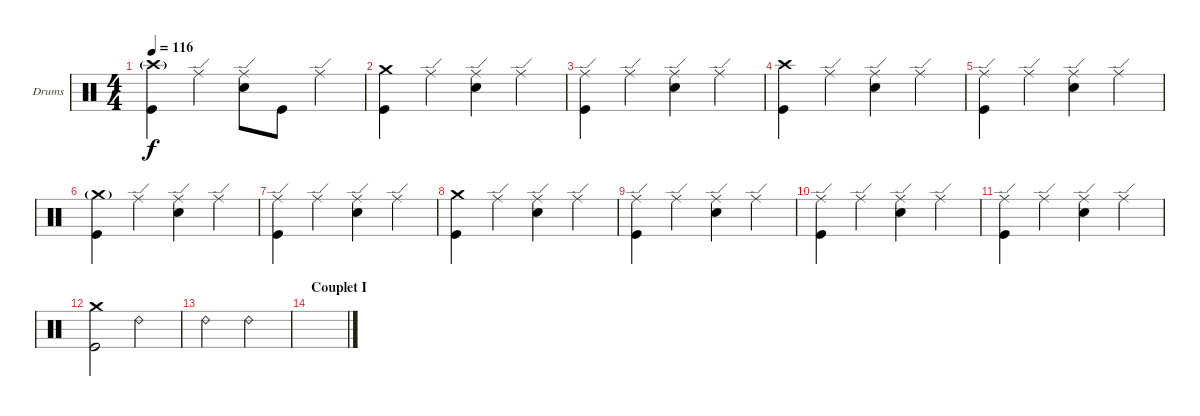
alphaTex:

\bracketExtendMode groupsimilarinstruments
\firstSystemTrackNameOrientation horizontal
\otherSystemsTrackNameOrientation horizontal
\track ("Nick Mason" "Drums") {multiBarRest instrument percussion}
\staff {score}
\articulation defaults
\ts (4 4)
\tempo 116
\clef neutral
\ks c
("Crash high (hit)"{g} "Kick (hit)").4{dy f} "Ride (edge)".4 ("Ride (edge)" "Snare (hit) 2").8 "Kick (hit)".8 "Ride (edge)".4 |
("Crash medium (hit)" "Kick (hit)").4 "Ride (edge)".4 ("Ride (edge)" "Snare (hit) 2").4 "Ride (edge)".4 |
("Ride (edge)" "Kick (hit)").4 "Ride (edge)".4 ("Ride (edge)" "Snare (hit) 2").4 "Ride (edge)".4 |
("Crash high (hit)" "Kick (hit)").4 "Ride (edge)".4 ("Ride (edge)" "Snare (hit) 2").4 "Ride (edge)".4 |
("Ride (edge)" "Kick (hit)").4 "Ride (edge)".4 ("Ride (edge)" "Snare (hit) 2").4 "Ride (edge)".4 |
("Crash medium (hit)"{g} "Kick (hit)").4 "Ride (edge)".4 ("Ride (edge)" "Snare (hit) 2").4 "Ride (edge)".4 |
("Ride (edge)" "Kick (hit)").4 "Ride (edge)".4 ("Ride (edge)" "Snare (hit) 2").4 "Ride (edge)".4 |
("Crash medium (hit)" "Kick (hit)").4 "Ride (edge)".4 ("Ride (edge)" "Snare (hit) 2").4 "Ride (edge)".4 |
("Ride (edge)" "Kick (hit)").4 "Ride (edge)".4 ("Ride (edge)" "Snare (hit) 2").4 "Ride (edge)".4 |
("Ride (edge)" "Kick (hit)").4 "Ride (edge)".4 ("Ride (edge)" "Snare (hit) 2").4 "Ride (edge)".4 |
("Ride (edge)" "Kick (hit)").4 "Ride (edge)".4 ("Ride (edge)" "Snare (hit) 2").4 "Ride (edge)".4 |
("Crash medium (hit)" "Kick (hit)").2 "Ride (bell) 2".2 |
"Ride (bell) 2".2 "Ride (bell) 2".2 |
\section ("" "Couplet I")
